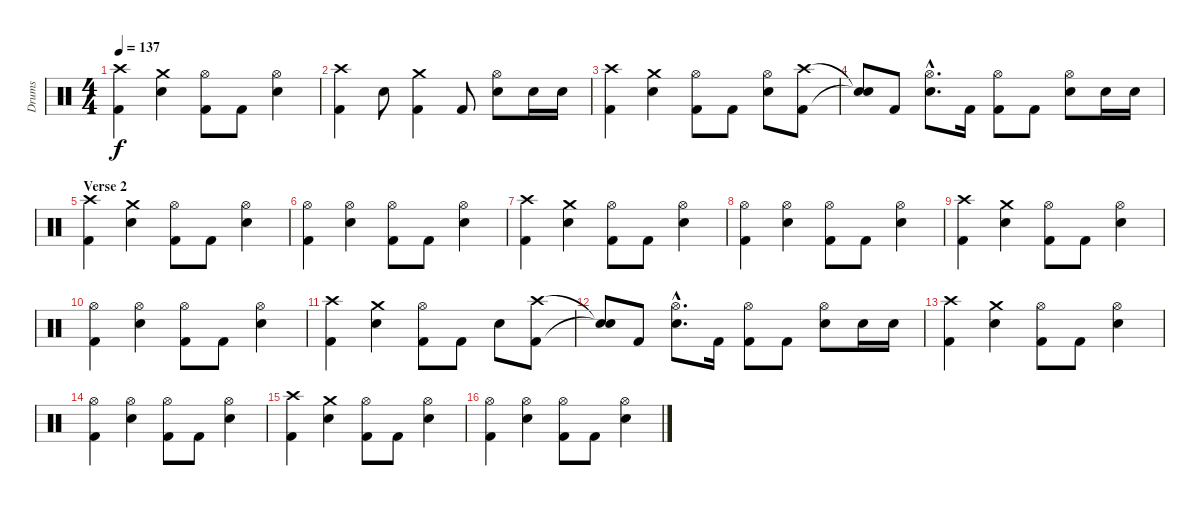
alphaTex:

\track ("Drums" "Drums") {instrument percussion}
\staff {score}
\articulation defaults
\ts (4 4)
\tempo 137
\clef neutral
\ks c
("Crash high (hit)" "Kick (hit) 2").4{dy f} ("Crash medium (hit)" "Snare (hit) 2").4 ("Hi-Hat (open)" "Kick (hit) 2").8 "Kick (hit) 2".8 ("Hi-Hat (open)" "Snare (hit) 2").4 |
("Crash high (hit)" "Kick (hit) 2").4 "Snare (hit) 2".8 ("Crash medium (hit)" "Kick (hit) 2").4 "Kick (hit) 2".8 ("Hi-Hat (open)" "Snare (hit) 2").8 "Snare (hit) 2".16 "Snare (hit) 2".16 |
("Crash high (hit)" "Kick (hit) 2").4 ("Crash medium (hit)" "Snare (hit) 2").4 ("Hi-Hat (open)" "Kick (hit) 2").8 "Kick (hit) 2".8 ("Hi-Hat (open)" "Snare (hit) 2").8 ("Crash high (hit)" "Kick (hit) 2").8 |
("Snare (hit)"{t} "Snare (hit)"{t}).8 "Kick (hit) 2".8 ("Hi-Hat (open)"{hac} "Snare (hit) 2"{hac}).8{d} "Kick (hit) 2".16 ("Hi-Hat (open)" "Kick (hit) 2").8 "Kick (hit) 2".8 ("Hi-Hat (open)" "Snare (hit) 2").8 "Snare (hit) 2".16 "Snare (hit) 2".16 |
\section ("" "Verse 2")
("Crash high (hit)" "Kick (hit) 2").4 ("Crash medium (hit)" "Snare (hit) 2").4 ("Hi-Hat (open)" "Kick (hit) 2").8 "Kick (hit) 2".8 ("Hi-Hat (open)" "Snare (hit) 2").4 |
("Hi-Hat (open)" "Kick (hit) 2").4 ("Hi-Hat (open)" "Snare (hit) 2").4 ("Hi-Hat (open)" "Kick (hit) 2").8 "Kick (hit) 2".8 ("Hi-Hat (open)" "Snare (hit) 2").4 |
("Crash high (hit)" "Kick (hit) 2").4 ("Crash medium (hit)" "Snare (hit) 2").4 ("Hi-Hat (open)" "Kick (hit) 2").8 "Kick (hit) 2".8 ("Hi-Hat (open)" "Snare (hit) 2").4 |
("Hi-Hat (open)" "Kick (hit) 2").4 ("Hi-Hat (open)" "Snare (hit) 2").4 ("Hi-Hat (open)" "Kick (hit) 2").8 "Kick (hit) 2".8 ("Hi-Hat (open)" "Snare (hit) 2").4 |
("Crash high (hit)" "Kick (hit) 2").4 ("Crash medium (hit)" "Snare (hit) 2").4 ("Hi-Hat (open)" "Kick (hit) 2").8 "Kick (hit) 2".8 ("Hi-Hat (open)" "Snare (hit) 2").4 |
("Hi-Hat (open)" "Kick (hit) 2").4 ("Hi-Hat (open)" "Snare (hit) 2").4 ("Hi-Hat (open)" "Kick (hit) 2").8 "Kick (hit) 2".8 ("Hi-Hat (open)" "Snare (hit) 2").4 |
("Crash high (hit)" "Kick (hit) 2").4 ("Crash medium (hit)" "Snare (hit) 2").4 ("Hi-Hat (open)" "Kick (hit) 2").8 "Kick (hit) 2".8 "Snare (hit) 2".8 ("Crash high (hit)" "Kick (hit) 2").8 |
("Snare (hit)"{t} "Snare (hit)"{t}).8 "Kick (hit) 2".8 ("Hi-Hat (open)"{hac} "Snare (hit) 2"{hac}).8{d} "Kick (hit) 2".16 ("Hi-Hat (open)" "Kick (hit) 2").8 "Kick (hit) 2".8 ("Hi-Hat (open)" "Snare (hit) 2").8 "Snare (hit) 2".16 "Snare (hit) 2".16 |
("Crash high (hit)" "Kick (hit) 2").4 ("Crash medium (hit)" "Snare (hit) 2").4 ("Hi-Hat (open)" "Kick (hit) 2").8 "Kick (hit) 2".8 ("Hi-Hat (open)" "Snare (hit) 2").4 |
("Hi-Hat (open)" "Kick (hit) 2").4 ("Hi-Hat (open)" "Snare (hit) 2").4 ("Hi-Hat (open)" "Kick (hit) 2").8 "Kick (hit) 2".8 ("Hi-Hat (open)" "Snare (hit) 2").4 |
("Crash high (hit)" "Kick (hit) 2").4 ("Crash medium (hit)" "Snare (hit) 2").4 ("Hi-Hat (open)" "Kick (hit) 2").8 "Kick (hit) 2".8 ("Hi-Hat (open)" "Snare (hit) 2").4 |
("Hi-Hat (open)" "Kick (hit) 2").4 ("Hi-Hat (open)" "Snare (hit) 2").4 ("Hi-Hat (open)" "Kick (hit) 2").8 "Kick (hit) 2".8 ("Hi-Hat (open)" "Snare (hit) 2").4
